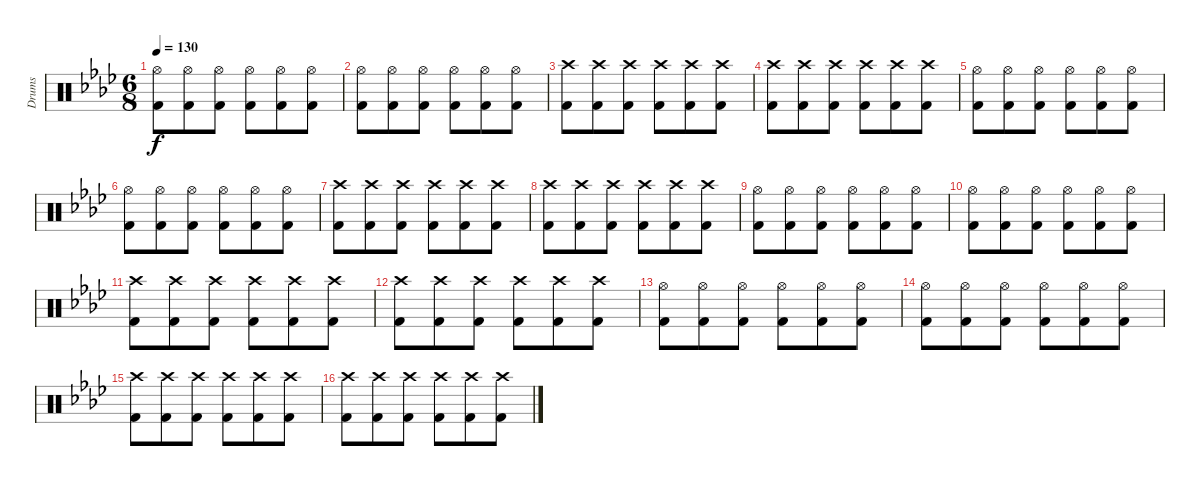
\track ("Drums" "Drums") {instrument percussion}
\staff {score}
\articulation defaults
\ts (6 8)
\tempo 130
\clef neutral
\ks ab
("Hi-Hat (open)" "Kick (hit) 2").8{dy f} ("Hi-Hat (open)" "Kick (hit) 2").8 ("Hi-Hat (open)" "Kick (hit) 2").8 ("Hi-Hat (open)" "Kick (hit) 2").8 ("Hi-Hat (open)" "Kick (hit) 2").8 ("Hi-Hat (open)" "Kick (hit) 2").8 |
("Hi-Hat (open)" "Kick (hit) 2").8 ("Hi-Hat (open)" "Kick (hit) 2").8 ("Hi-Hat (open)" "Kick (hit) 2").8 ("Hi-Hat (open)" "Kick (hit) 2").8 ("Hi-Hat (open)" "Kick (hit) 2").8 ("Hi-Hat (open)" "Kick (hit) 2").8 |
("Crash high (hit)" "Kick (hit) 2").8 ("Crash high (hit)" "Kick (hit) 2").8 ("Crash high (hit)" "Kick (hit) 2").8 ("Crash high (hit)" "Kick (hit) 2").8 ("Crash high (hit)" "Kick (hit) 2").8 ("Crash high (hit)" "Kick (hit) 2").8 |
("Crash high (hit)" "Kick (hit) 2").8 ("Crash high (hit)" "Kick (hit) 2").8 ("Crash high (hit)" "Kick (hit) 2").8 ("Crash high (hit)" "Kick (hit) 2").8 ("Crash high (hit)" "Kick (hit) 2").8 ("Crash high (hit)" "Kick (hit) 2").8 |
("Hi-Hat (open)" "Kick (hit) 2").8 ("Hi-Hat (open)" "Kick (hit) 2").8 ("Hi-Hat (open)" "Kick (hit) 2").8 ("Hi-Hat (open)" "Kick (hit) 2").8 ("Hi-Hat (open)" "Kick (hit) 2").8 ("Hi-Hat (open)" "Kick (hit) 2").8 |
("Hi-Hat (open)" "Kick (hit) 2").8 ("Hi-Hat (open)" "Kick (hit) 2").8 ("Hi-Hat (open)" "Kick (hit) 2").8 ("Hi-Hat (open)" "Kick (hit) 2").8 ("Hi-Hat (open)" "Kick (hit) 2").8 ("Hi-Hat (open)" "Kick (hit) 2").8 |
("Crash high (hit)" "Kick (hit) 2").8 ("Crash high (hit)" "Kick (hit) 2").8 ("Crash high (hit)" "Kick (hit) 2").8 ("Crash high (hit)" "Kick (hit) 2").8 ("Crash high (hit)" "Kick (hit) 2").8 ("Crash high (hit)" "Kick (hit) 2").8 |
("Crash high (hit)" "Kick (hit) 2").8 ("Crash high (hit)" "Kick (hit) 2").8 ("Crash high (hit)" "Kick (hit) 2").8 ("Crash high (hit)" "Kick (hit) 2").8 ("Crash high (hit)" "Kick (hit) 2").8 ("Crash high (hit)" "Kick (hit) 2").8 |
("Hi-Hat (open)" "Kick (hit) 2").8 ("Hi-Hat (open)" "Kick (hit) 2").8 ("Hi-Hat (open)" "Kick (hit) 2").8 ("Hi-Hat (open)" "Kick (hit) 2").8 ("Hi-Hat (open)" "Kick (hit) 2").8 ("Hi-Hat (open)" "Kick (hit) 2").8 |
("Hi-Hat (open)" "Kick (hit) 2").8 ("Hi-Hat (open)" "Kick (hit) 2").8 ("Hi-Hat (open)" "Kick (hit) 2").8 ("Hi-Hat (open)" "Kick (hit) 2").8 ("Hi-Hat (open)" "Kick (hit) 2").8 ("Hi-Hat (open)" "Kick (hit) 2").8 |
("Crash high (hit)" "Kick (hit) 2").8 ("Crash high (hit)" "Kick (hit) 2").8 ("Crash high (hit)" "Kick (hit) 2").8 ("Crash high (hit)" "Kick (hit) 2").8 ("Crash high (hit)" "Kick (hit) 2").8 ("Crash high (hit)" "Kick (hit) 2").8 |
("Crash high (hit)" "Kick (hit) 2").8 ("Crash high (hit)" "Kick (hit) 2").8 ("Crash high (hit)" "Kick (hit) 2").8 ("Crash high (hit)" "Kick (hit) 2").8 ("Crash high (hit)" "Kick (hit) 2").8 ("Crash high (hit)" "Kick (hit) 2").8 |
("Hi-Hat (open)" "Kick (hit) 2").8 ("Hi-Hat (open)" "Kick (hit) 2").8 ("Hi-Hat (open)" "Kick (hit) 2").8 ("Hi-Hat (open)" "Kick (hit) 2").8 ("Hi-Hat (open)" "Kick (hit) 2").8 ("Hi-Hat (open)" "Kick (hit) 2").8 |
("Hi-Hat (open)" "Kick (hit) 2").8 ("Hi-Hat (open)" "Kick (hit) 2").8 ("Hi-Hat (open)" "Kick (hit) 2").8 ("Hi-Hat (open)" "Kick (hit) 2").8 ("Hi-Hat (open)" "Kick (hit) 2").8 ("Hi-Hat (open)" "Kick (hit) 2").8 |
("Crash high (hit)" "Kick (hit) 2").8 ("Crash high (hit)" "Kick (hit) 2").8 ("Crash high (hit)" "Kick (hit) 2").8 ("Crash high (hit)" "Kick (hit) 2").8 ("Crash high (hit)" "Kick (hit) 2").8 ("Crash high (hit)" "Kick (hit) 2").8 |
("Crash high (hit)" "Kick (hit) 2").8 ("Crash high (hit)" "Kick (hit) 2").8 ("Crash high (hit)" "Kick (hit) 2").8 ("Crash high (hit)" "Kick (hit) 2").8 ("Crash high (hit)" "Kick (hit) 2").8 ("Crash high (hit)" "Kick (hit) 2").8
